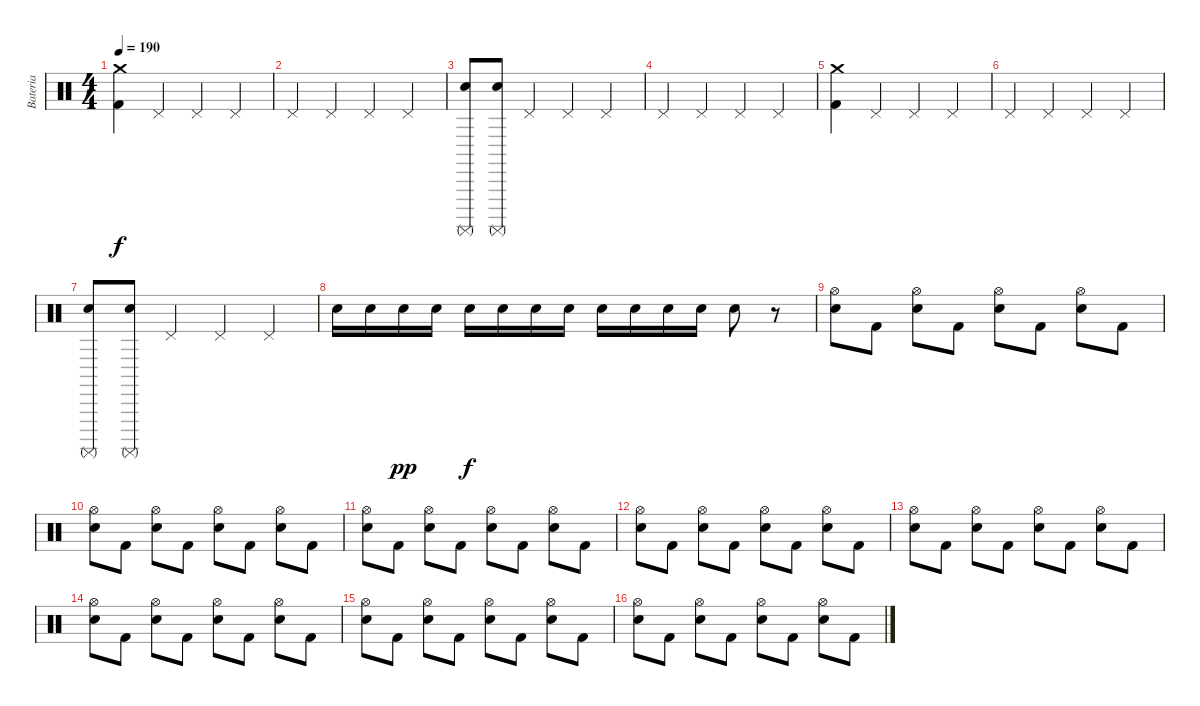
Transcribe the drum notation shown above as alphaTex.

\track ("Bateria" "Bateria") {instrument percussion}
\staff {score}
\articulation defaults
\ts (4 4)
\tempo 190
\clef neutral
\ks c
("Crash medium (hit)" "Kick (hit) 2").4{dy f} "Pedal Hi-Hat (hit)".4 "Pedal Hi-Hat (hit)".4 "Pedal Hi-Hat (hit)".4 |
"Pedal Hi-Hat (hit)".4 "Pedal Hi-Hat (hit)".4 "Pedal Hi-Hat (hit)".4 "Pedal Hi-Hat (hit)".4 |
("Surdo (mute)" "Electric Snare (hit)").8 ("Surdo (mute)" "Electric Snare (hit)").8 "Pedal Hi-Hat (hit)".4 "Pedal Hi-Hat (hit)".4 "Pedal Hi-Hat (hit)".4 |
"Pedal Hi-Hat (hit)".4 "Pedal Hi-Hat (hit)".4 "Pedal Hi-Hat (hit)".4 "Pedal Hi-Hat (hit)".4 |
("Crash medium (hit)" "Kick (hit) 2").4 "Pedal Hi-Hat (hit)".4 "Pedal Hi-Hat (hit)".4 "Pedal Hi-Hat (hit)".4 |
"Pedal Hi-Hat (hit)".4 "Pedal Hi-Hat (hit)".4 "Pedal Hi-Hat (hit)".4 "Pedal Hi-Hat (hit)".4 |
("Surdo (mute)" "Electric Snare (hit)").8 ("Surdo (mute)" "Electric Snare (hit)").8 "Pedal Hi-Hat (hit)".4 "Pedal Hi-Hat (hit)".4 "Pedal Hi-Hat (hit)".4 |
"Electric Snare (hit)".16 "Electric Snare (hit)".16 "Electric Snare (hit)".16{dy pp} "Electric Snare (hit)".16 "Electric Snare (hit)".16{dy f} "Electric Snare (hit)".16 "Electric Snare (hit)".16 "Electric Snare (hit)".16 "Electric Snare (hit)".16 "Electric Snare (hit)".16 "Electric Snare (hit)".16 "Electric Snare (hit)".16 "Electric Snare (hit)".8 r.8 |
("Hi-Hat (open)" "Electric Snare (hit)").8 "Kick (hit) 2".8 ("Hi-Hat (open)" "Electric Snare (hit)").8 "Kick (hit) 2".8 ("Hi-Hat (open)" "Electric Snare (hit)").8 "Kick (hit) 2".8 ("Hi-Hat (open)" "Electric Snare (hit)").8 "Kick (hit) 2".8 |
("Hi-Hat (open)" "Electric Snare (hit)").8 "Kick (hit) 2".8 ("Hi-Hat (open)" "Electric Snare (hit)").8 "Kick (hit) 2".8 ("Hi-Hat (open)" "Electric Snare (hit)").8 "Kick (hit) 2".8 ("Hi-Hat (open)" "Electric Snare (hit)").8 "Kick (hit) 2".8 |
("Hi-Hat (open)" "Electric Snare (hit)").8 "Kick (hit) 2".8 ("Hi-Hat (open)" "Electric Snare (hit)").8 "Kick (hit) 2".8 ("Hi-Hat (open)" "Electric Snare (hit)").8 "Kick (hit) 2".8 ("Hi-Hat (open)" "Electric Snare (hit)").8 "Kick (hit) 2".8 |
("Hi-Hat (open)" "Electric Snare (hit)").8 "Kick (hit) 2".8 ("Hi-Hat (open)" "Electric Snare (hit)").8 "Kick (hit) 2".8 ("Hi-Hat (open)" "Electric Snare (hit)").8 "Kick (hit) 2".8 ("Hi-Hat (open)" "Electric Snare (hit)").8 "Kick (hit) 2".8 |
("Hi-Hat (open)" "Electric Snare (hit)").8 "Kick (hit) 2".8 ("Hi-Hat (open)" "Electric Snare (hit)").8 "Kick (hit) 2".8 ("Hi-Hat (open)" "Electric Snare (hit)").8 "Kick (hit) 2".8 ("Hi-Hat (open)" "Electric Snare (hit)").8 "Kick (hit) 2".8 |
("Hi-Hat (open)" "Electric Snare (hit)").8 "Kick (hit) 2".8 ("Hi-Hat (open)" "Electric Snare (hit)").8 "Kick (hit) 2".8 ("Hi-Hat (open)" "Electric Snare (hit)").8 "Kick (hit) 2".8 ("Hi-Hat (open)" "Electric Snare (hit)").8 "Kick (hit) 2".8 |
("Hi-Hat (open)" "Electric Snare (hit)").8 "Kick (hit) 2".8 ("Hi-Hat (open)" "Electric Snare (hit)").8 "Kick (hit) 2".8 ("Hi-Hat (open)" "Electric Snare (hit)").8 "Kick (hit) 2".8 ("Hi-Hat (open)" "Electric Snare (hit)").8 "Kick (hit) 2".8 |
("Hi-Hat (open)" "Electric Snare (hit)").8 "Kick (hit) 2".8 ("Hi-Hat (open)" "Electric Snare (hit)").8 "Kick (hit) 2".8 ("Hi-Hat (open)" "Electric Snare (hit)").8 "Kick (hit) 2".8 ("Hi-Hat (open)" "Electric Snare (hit)").8 "Kick (hit) 2".8
